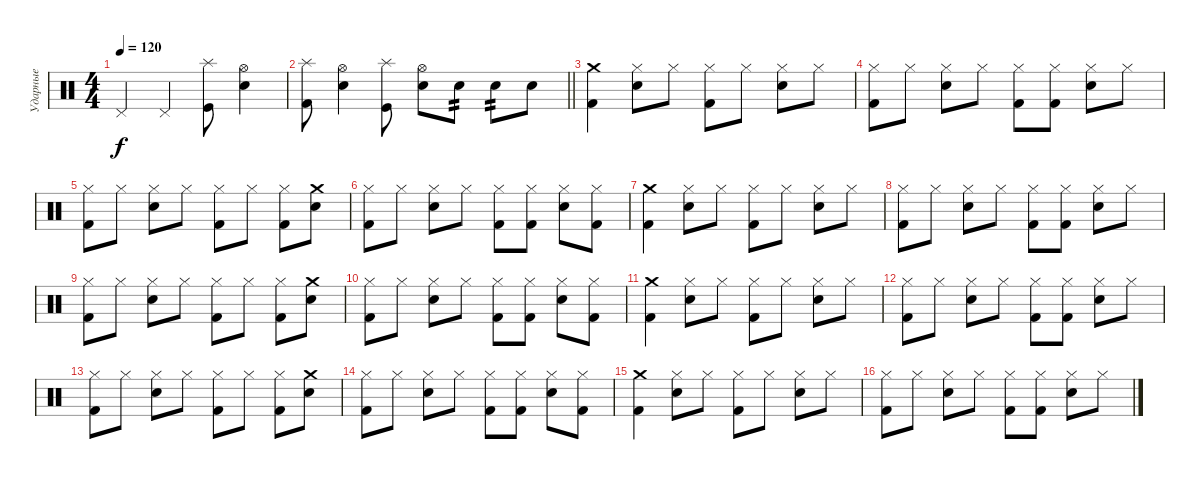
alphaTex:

\track ("Ударные" "Ударные") {instrument percussion}
\staff {score}
\articulation defaults
\ts (4 4)
\tempo 120
\clef neutral
\ks c "Pedal Hi-Hat (hit)".4{dy f} "Pedal Hi-Hat (hit)".4
("Kick (hit)" "Splash (hit)").8 ("Snare (hit) 2" "Hi-Hat (open)").4 |
\barLineRight lightlight
("Kick (hit) 2" "Splash (hit)").8 ("Snare (hit) 2" "Hi-Hat (open)").4 ("Kick (hit)" "Splash (hit)").8 ("Snare (hit) 2" "Hi-Hat (open)").8 "Snare (hit) 2".8{tp 2} "Snare (hit) 2".8{tp 2} "Snare (hit) 2".8 |
("Kick (hit) 2" "Crash medium (hit)").4 ("Snare (hit) 2" "Hi-Hat (closed)").8 "Hi-Hat (closed)".8 ("Hi-Hat (closed)" "Kick (hit) 2").8 "Hi-Hat (closed)".8 ("Snare (hit) 2" "Hi-Hat (closed)").8 "Hi-Hat (closed)".8 |
("Hi-Hat (closed)" "Kick (hit) 2").8 "Hi-Hat (closed)".8 ("Snare (hit) 2" "Hi-Hat (closed)").8 "Hi-Hat (closed)".8 ("Kick (hit) 2" "Hi-Hat (closed)").8 ("Kick (hit) 2" "Hi-Hat (closed)").8 ("Snare (hit) 2" "Hi-Hat (closed)").8 "Hi-Hat (closed)".8 |
("Hi-Hat (closed)" "Kick (hit) 2").8 "Hi-Hat (closed)".8 ("Snare (hit) 2" "Hi-Hat (closed)").8 "Hi-Hat (closed)".8 ("Hi-Hat (closed)" "Kick (hit) 2").8 "Hi-Hat (closed)".8 ("Hi-Hat (closed)" "Kick (hit) 2").8 ("Crash medium (hit)" "Snare (hit) 2").8 |
("Hi-Hat (closed)" "Kick (hit) 2").8 "Hi-Hat (closed)".8 ("Snare (hit) 2" "Hi-Hat (closed)").8 "Hi-Hat (closed)".8 ("Kick (hit) 2" "Hi-Hat (closed)").8 ("Kick (hit) 2" "Hi-Hat (closed)").8 ("Snare (hit) 2" "Hi-Hat (closed)").8 ("Kick (hit) 2" "Hi-Hat (closed)").8 |
("Kick (hit) 2" "Crash medium (hit)").4 ("Snare (hit) 2" "Hi-Hat (closed)").8 "Hi-Hat (closed)".8 ("Hi-Hat (closed)" "Kick (hit) 2").8 "Hi-Hat (closed)".8 ("Snare (hit) 2" "Hi-Hat (closed)").8 "Hi-Hat (closed)".8 |
("Hi-Hat (closed)" "Kick (hit) 2").8 "Hi-Hat (closed)".8 ("Snare (hit) 2" "Hi-Hat (closed)").8 "Hi-Hat (closed)".8 ("Kick (hit) 2" "Hi-Hat (closed)").8 ("Kick (hit) 2" "Hi-Hat (closed)").8 ("Snare (hit) 2" "Hi-Hat (closed)").8 "Hi-Hat (closed)".8 |
("Hi-Hat (closed)" "Kick (hit) 2").8 "Hi-Hat (closed)".8 ("Snare (hit) 2" "Hi-Hat (closed)").8 "Hi-Hat (closed)".8 ("Hi-Hat (closed)" "Kick (hit) 2").8 "Hi-Hat (closed)".8 ("Hi-Hat (closed)" "Kick (hit) 2").8 ("Crash medium (hit)" "Snare (hit) 2").8 |
("Hi-Hat (closed)" "Kick (hit) 2").8 "Hi-Hat (closed)".8 ("Snare (hit) 2" "Hi-Hat (closed)").8 "Hi-Hat (closed)".8 ("Kick (hit) 2" "Hi-Hat (closed)").8 ("Kick (hit) 2" "Hi-Hat (closed)").8 ("Snare (hit) 2" "Hi-Hat (closed)").8 ("Kick (hit) 2" "Hi-Hat (closed)").8 |
("Kick (hit) 2" "Crash medium (hit)").4 ("Snare (hit) 2" "Hi-Hat (closed)").8 "Hi-Hat (closed)".8 ("Hi-Hat (closed)" "Kick (hit) 2").8 "Hi-Hat (closed)".8 ("Snare (hit) 2" "Hi-Hat (closed)").8 "Hi-Hat (closed)".8 |
("Hi-Hat (closed)" "Kick (hit) 2").8 "Hi-Hat (closed)".8 ("Snare (hit) 2" "Hi-Hat (closed)").8 "Hi-Hat (closed)".8 ("Kick (hit) 2" "Hi-Hat (closed)").8 ("Kick (hit) 2" "Hi-Hat (closed)").8 ("Snare (hit) 2" "Hi-Hat (closed)").8 "Hi-Hat (closed)".8 |
("Hi-Hat (closed)" "Kick (hit) 2").8 "Hi-Hat (closed)".8 ("Snare (hit) 2" "Hi-Hat (closed)").8 "Hi-Hat (closed)".8 ("Hi-Hat (closed)" "Kick (hit) 2").8 "Hi-Hat (closed)".8 ("Hi-Hat (closed)" "Kick (hit) 2").8 ("Crash medium (hit)" "Snare (hit) 2").8 |
("Hi-Hat (closed)" "Kick (hit) 2").8 "Hi-Hat (closed)".8 ("Snare (hit) 2" "Hi-Hat (closed)").8 "Hi-Hat (closed)".8 ("Kick (hit) 2" "Hi-Hat (closed)").8 ("Kick (hit) 2" "Hi-Hat (closed)").8 ("Snare (hit) 2" "Hi-Hat (closed)").8 ("Kick (hit) 2" "Hi-Hat (closed)").8 |
("Kick (hit) 2" "Crash medium (hit)").4 ("Snare (hit) 2" "Hi-Hat (closed)").8 "Hi-Hat (closed)".8 ("Hi-Hat (closed)" "Kick (hit) 2").8 "Hi-Hat (closed)".8 ("Snare (hit) 2" "Hi-Hat (closed)").8 "Hi-Hat (closed)".8 |
("Hi-Hat (closed)" "Kick (hit) 2").8 "Hi-Hat (closed)".8 ("Snare (hit) 2" "Hi-Hat (closed)").8 "Hi-Hat (closed)".8 ("Kick (hit) 2" "Hi-Hat (closed)").8 ("Kick (hit) 2" "Hi-Hat (closed)").8 ("Snare (hit) 2" "Hi-Hat (closed)").8 "Hi-Hat (closed)".8
